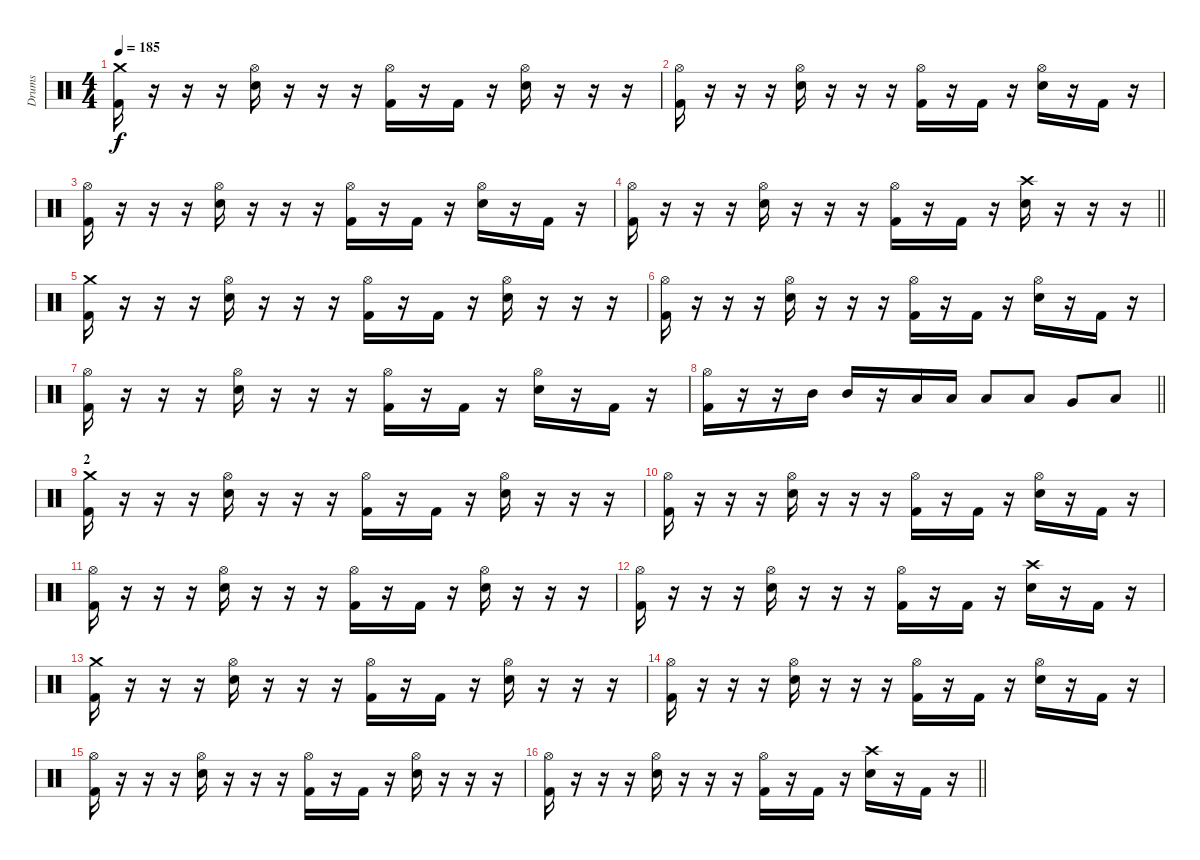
\track ("Drums" "Drums") {instrument percussion}
\staff {score}
\articulation defaults
\ts (4 4)
\section ("" "")
\tempo 185
\clef neutral
\ks c
("Crash medium (hit)" "Kick (hit) 2").16{dy f} r.16 r.16 r.16 ("Hi-Hat (open)" "Electric Snare (hit)").16 r.16 r.16 r.16 ("Hi-Hat (open)" "Kick (hit) 2").16 r.16 "Kick (hit) 2".16 r.16 ("Hi-Hat (open)" "Electric Snare (hit)").16 r.16 r.16 r.16 |
("Hi-Hat (open)" "Kick (hit) 2").16 r.16 r.16 r.16 ("Hi-Hat (open)" "Electric Snare (hit)").16 r.16 r.16 r.16 ("Hi-Hat (open)" "Kick (hit) 2").16 r.16 "Kick (hit) 2".16 r.16 ("Hi-Hat (open)" "Electric Snare (hit)").16 r.16 "Kick (hit) 2".16 r.16 |
("Hi-Hat (open)" "Kick (hit) 2").16 r.16 r.16 r.16 ("Hi-Hat (open)" "Electric Snare (hit)").16 r.16 r.16 r.16 ("Hi-Hat (open)" "Kick (hit) 2").16 r.16 "Kick (hit) 2".16 r.16 ("Hi-Hat (open)" "Electric Snare (hit)").16 r.16 "Kick (hit) 2".16 r.16 |
\barLineRight lightlight
("Hi-Hat (open)" "Kick (hit) 2").16 r.16 r.16 r.16 ("Hi-Hat (open)" "Electric Snare (hit)").16 r.16 r.16 r.16 ("Hi-Hat (open)" "Kick (hit) 2").16 r.16 "Kick (hit) 2".16 r.16 ("Crash high (hit)" "Electric Snare (hit)").16 r.16 r.16 r.16 |
\section ("" "")
("Crash medium (hit)" "Kick (hit) 2").16 r.16 r.16 r.16 ("Hi-Hat (open)" "Electric Snare (hit)").16 r.16 r.16 r.16 ("Hi-Hat (open)" "Kick (hit) 2").16 r.16 "Kick (hit) 2".16 r.16 ("Hi-Hat (open)" "Electric Snare (hit)").16 r.16 r.16 r.16 |
("Hi-Hat (open)" "Kick (hit) 2").16 r.16 r.16 r.16 ("Hi-Hat (open)" "Electric Snare (hit)").16 r.16 r.16 r.16 ("Hi-Hat (open)" "Kick (hit) 2").16 r.16 "Kick (hit) 2".16 r.16 ("Hi-Hat (open)" "Electric Snare (hit)").16 r.16 "Kick (hit) 2".16 r.16 |
("Hi-Hat (open)" "Kick (hit) 2").16 r.16 r.16 r.16 ("Hi-Hat (open)" "Electric Snare (hit)").16 r.16 r.16 r.16 ("Hi-Hat (open)" "Kick (hit) 2").16 r.16 "Kick (hit) 2".16 r.16 ("Hi-Hat (open)" "Electric Snare (hit)").16 r.16 "Kick (hit) 2".16 r.16 |
\barLineRight lightlight
("Hi-Hat (open)" "Kick (hit) 2").16 r.16 r.16 "Mid Tom (hit)".16 "Mid Tom (hit)".16 r.16 "Low Tom (hit)".16 "Low Tom (hit)".16 "Low Tom (hit)".8 "Low Tom (hit)".8 "Very Low Tom (hit)".8 "Low Floor Tom (hit)".8 |
\section ("" "2")
("Crash medium (hit)" "Kick (hit) 2").16 r.16 r.16 r.16 ("Hi-Hat (open)" "Electric Snare (hit)").16 r.16 r.16 r.16 ("Hi-Hat (open)" "Kick (hit) 2").16 r.16 "Kick (hit) 2".16 r.16 ("Hi-Hat (open)" "Electric Snare (hit)").16 r.16 r.16 r.16 |
("Hi-Hat (open)" "Kick (hit) 2").16 r.16 r.16 r.16 ("Hi-Hat (open)" "Electric Snare (hit)").16 r.16 r.16 r.16 ("Hi-Hat (open)" "Kick (hit) 2").16 r.16 "Kick (hit) 2".16 r.16 ("Hi-Hat (open)" "Electric Snare (hit)").16 r.16 "Kick (hit) 2".16 r.16 |
("Hi-Hat (open)" "Kick (hit) 2").16 r.16 r.16 r.16 ("Hi-Hat (open)" "Electric Snare (hit)").16 r.16 r.16 r.16 ("Hi-Hat (open)" "Kick (hit) 2").16 r.16 "Kick (hit) 2".16 r.16 ("Hi-Hat (open)" "Electric Snare (hit)").16 r.16 r.16 r.16 |
("Hi-Hat (open)" "Kick (hit) 2").16 r.16 r.16 r.16 ("Hi-Hat (open)" "Electric Snare (hit)").16 r.16 r.16 r.16 ("Hi-Hat (open)" "Kick (hit) 2").16 r.16 "Kick (hit) 2".16 r.16 ("Crash high (hit)" "Electric Snare (hit)").16 r.16 "Kick (hit) 2".16 r.16 |
("Crash medium (hit)" "Kick (hit) 2").16 r.16 r.16 r.16 ("Hi-Hat (open)" "Electric Snare (hit)").16 r.16 r.16 r.16 ("Hi-Hat (open)" "Kick (hit) 2").16 r.16 "Kick (hit) 2".16 r.16 ("Hi-Hat (open)" "Electric Snare (hit)").16 r.16 r.16 r.16 |
("Hi-Hat (open)" "Kick (hit) 2").16 r.16 r.16 r.16 ("Hi-Hat (open)" "Electric Snare (hit)").16 r.16 r.16 r.16 ("Hi-Hat (open)" "Kick (hit) 2").16 r.16 "Kick (hit) 2".16 r.16 ("Hi-Hat (open)" "Electric Snare (hit)").16 r.16 "Kick (hit) 2".16 r.16 |
("Hi-Hat (open)" "Kick (hit) 2").16 r.16 r.16 r.16 ("Hi-Hat (open)" "Electric Snare (hit)").16 r.16 r.16 r.16 ("Hi-Hat (open)" "Kick (hit) 2").16 r.16 "Kick (hit) 2".16 r.16 ("Hi-Hat (open)" "Electric Snare (hit)").16 r.16 r.16 r.16 |
\barLineRight lightlight
("Hi-Hat (open)" "Kick (hit) 2").16 r.16 r.16 r.16 ("Hi-Hat (open)" "Electric Snare (hit)").16 r.16 r.16 r.16 ("Hi-Hat (open)" "Kick (hit) 2").16 r.16 "Kick (hit) 2".16 r.16 ("Crash high (hit)" "Electric Snare (hit)").16 r.16 "Kick (hit) 2".16 r.16
